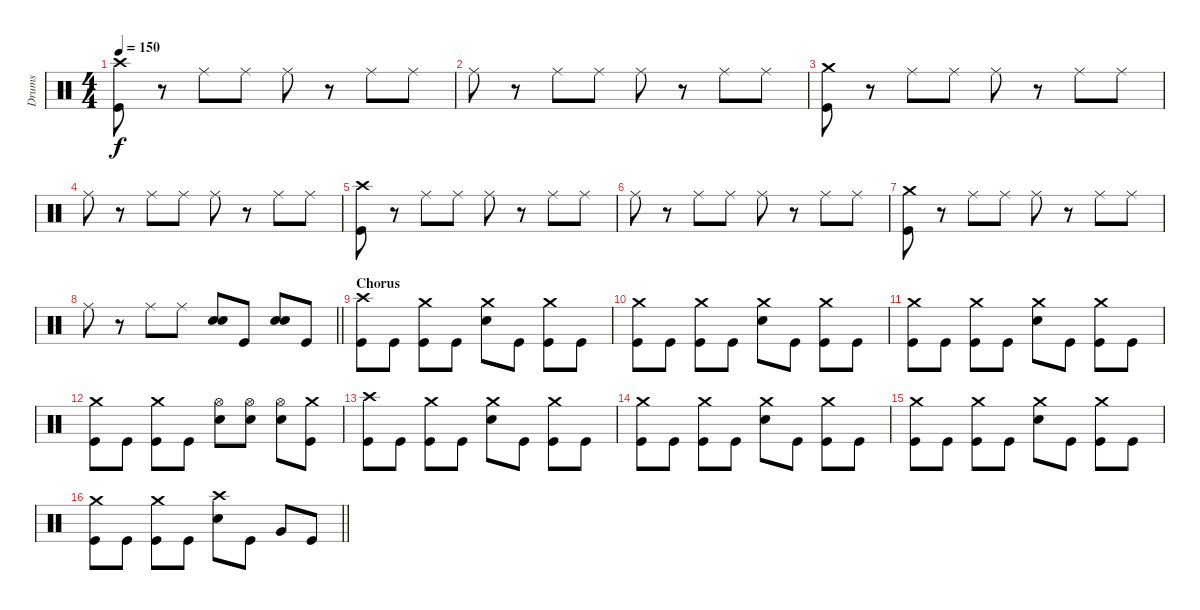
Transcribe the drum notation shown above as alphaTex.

\track ("Drums" "Drums") {instrument percussion}
\staff {score}
\articulation defaults
\ts (4 4)
\tempo 150
\clef neutral
\ks c
("Crash high (hit)" "Kick (hit)").8{dy f} r.8 "Ride (middle)".8 "Ride (middle)".8 "Ride (middle)".8 r.8 "Ride (middle)".8 "Ride (middle)".8 |
"Ride (middle)".8 r.8 "Ride (middle)".8 "Ride (middle)".8 "Ride (middle)".8 r.8 "Ride (middle)".8 "Ride (middle)".8 |
("Crash medium (hit)" "Kick (hit)").8 r.8 "Ride (middle)".8 "Ride (middle)".8 "Ride (middle)".8 r.8 "Ride (middle)".8 "Ride (middle)".8 |
"Ride (middle)".8 r.8 "Ride (middle)".8 "Ride (middle)".8 "Ride (middle)".8 r.8 "Ride (middle)".8 "Ride (middle)".8 |
("Crash high (hit)" "Kick (hit)").8 r.8 "Ride (middle)".8 "Ride (middle)".8 "Ride (middle)".8 r.8 "Ride (middle)".8 "Ride (middle)".8 |
"Ride (middle)".8 r.8 "Ride (middle)".8 "Ride (middle)".8 "Ride (middle)".8 r.8 "Ride (middle)".8 "Ride (middle)".8 |
("Crash medium (hit)" "Kick (hit)").8 r.8 "Ride (middle)".8 "Ride (middle)".8 "Ride (middle)".8 r.8 "Ride (middle)".8 "Ride (middle)".8 |
\barLineRight lightlight "Ride (middle)".8
r.8 "Ride (middle)".8 "Ride (middle)".8 ("Electric Snare (hit)" "Electric Snare (hit)").8 "Kick (hit)".8 ("Electric Snare (hit)" "Electric Snare (hit)").8 "Kick (hit)".8 |
\section ("" "Chorus")
("Crash high (hit)" "Kick (hit)").8 "Kick (hit)".8 ("Crash medium (hit)" "Kick (hit)").8 "Kick (hit)".8 ("Crash medium (hit)" "Electric Snare (hit)").8 "Kick (hit)".8 ("Crash medium (hit)" "Kick (hit)").8 "Kick (hit)".8 |
("Crash medium (hit)" "Kick (hit)").8 "Kick (hit)".8 ("Crash medium (hit)" "Kick (hit)").8 "Kick (hit)".8 ("Crash medium (hit)" "Electric Snare (hit)").8 "Kick (hit)".8 ("Crash medium (hit)" "Kick (hit)").8 "Kick (hit)".8 |
("Crash medium (hit)" "Kick (hit)").8 "Kick (hit)".8 ("Crash medium (hit)" "Kick (hit)").8 "Kick (hit)".8 ("Crash medium (hit)" "Electric Snare (hit)").8 "Kick (hit)".8 ("Crash medium (hit)" "Kick (hit)").8 "Kick (hit)".8 |
("Crash medium (hit)" "Kick (hit)").8 "Kick (hit)".8 ("Crash medium (hit)" "Kick (hit)").8 "Kick (hit)".8 ("Hi-Hat (open)" "Electric Snare (hit)").8 ("Hi-Hat (open)" "Electric Snare (hit)").8 ("Hi-Hat (open)" "Electric Snare (hit)").8 ("Crash medium (hit)" "Kick (hit)").8 |
("Crash high (hit)" "Kick (hit)").8 "Kick (hit)".8 ("Crash medium (hit)" "Kick (hit)").8 "Kick (hit)".8 ("Crash medium (hit)" "Electric Snare (hit)").8 "Kick (hit)".8 ("Crash medium (hit)" "Kick (hit)").8 "Kick (hit)".8 |
("Crash medium (hit)" "Kick (hit)").8 "Kick (hit)".8 ("Crash medium (hit)" "Kick (hit)").8 "Kick (hit)".8 ("Crash medium (hit)" "Electric Snare (hit)").8 "Kick (hit)".8 ("Crash medium (hit)" "Kick (hit)").8 "Kick (hit)".8 |
("Crash medium (hit)" "Kick (hit)").8 "Kick (hit)".8 ("Crash medium (hit)" "Kick (hit)").8 "Kick (hit)".8 ("Crash medium (hit)" "Electric Snare (hit)").8 "Kick (hit)".8 ("Crash medium (hit)" "Kick (hit)").8 "Kick (hit)".8 |
\barLineRight lightlight
("Crash medium (hit)" "Kick (hit)").8 "Kick (hit)".8 ("Crash medium (hit)" "Kick (hit)").8 "Kick (hit)".8 ("Crash high (hit)" "Electric Snare (hit)").8 "Kick (hit)".8 "Very Low Tom (hit)".8 "Kick (hit)".8
